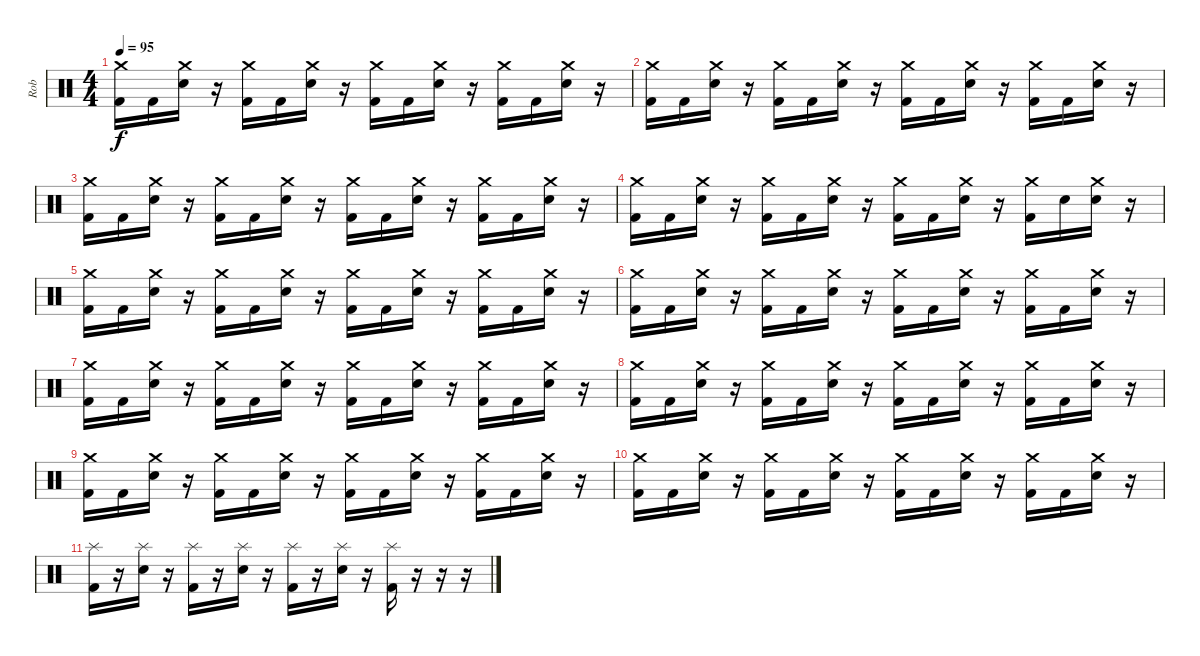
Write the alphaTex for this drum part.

\track ("Rob" "Rob") {instrument percussion}
\staff {score}
\articulation defaults
\ts (4 4)
\tempo 95
\clef neutral
\ks c
("Crash medium (hit)" "Kick (hit) 2").16{dy f} "Kick (hit) 2".16 ("Crash medium (hit)" "Electric Snare (hit)").16 r.16 ("Crash medium (hit)" "Kick (hit) 2").16 "Kick (hit) 2".16 ("Crash medium (hit)" "Electric Snare (hit)").16 r.16 ("Crash medium (hit)" "Kick (hit) 2").16 "Kick (hit) 2".16 ("Crash medium (hit)" "Electric Snare (hit)").16 r.16 ("Crash medium (hit)" "Kick (hit) 2").16 "Kick (hit) 2".16 ("Crash medium (hit)" "Electric Snare (hit)").16 r.16 |
("Crash medium (hit)" "Kick (hit) 2").16 "Kick (hit) 2".16 ("Crash medium (hit)" "Electric Snare (hit)").16 r.16 ("Crash medium (hit)" "Kick (hit) 2").16 "Kick (hit) 2".16 ("Crash medium (hit)" "Electric Snare (hit)").16 r.16 ("Crash medium (hit)" "Kick (hit) 2").16 "Kick (hit) 2".16 ("Crash medium (hit)" "Electric Snare (hit)").16 r.16 ("Crash medium (hit)" "Kick (hit) 2").16 "Kick (hit) 2".16 ("Crash medium (hit)" "Electric Snare (hit)").16 r.16 |
("Crash medium (hit)" "Kick (hit) 2").16 "Kick (hit) 2".16 ("Crash medium (hit)" "Electric Snare (hit)").16 r.16 ("Crash medium (hit)" "Kick (hit) 2").16 "Kick (hit) 2".16 ("Crash medium (hit)" "Electric Snare (hit)").16 r.16 ("Crash medium (hit)" "Kick (hit) 2").16 "Kick (hit) 2".16 ("Crash medium (hit)" "Electric Snare (hit)").16 r.16 ("Crash medium (hit)" "Kick (hit) 2").16 "Kick (hit) 2".16 ("Crash medium (hit)" "Electric Snare (hit)").16 r.16 |
("Crash medium (hit)" "Kick (hit) 2").16 "Kick (hit) 2".16 ("Crash medium (hit)" "Electric Snare (hit)").16 r.16 ("Crash medium (hit)" "Kick (hit) 2").16 "Kick (hit) 2".16 ("Crash medium (hit)" "Electric Snare (hit)").16 r.16 ("Crash medium (hit)" "Kick (hit) 2").16 "Kick (hit) 2".16 ("Crash medium (hit)" "Electric Snare (hit)").16 r.16 ("Crash medium (hit)" "Kick (hit) 2").16 "Electric Snare (hit)".16 ("Crash medium (hit)" "Electric Snare (hit)").16 r.16 |
("Crash medium (hit)" "Kick (hit) 2").16 "Kick (hit) 2".16 ("Crash medium (hit)" "Electric Snare (hit)").16 r.16 ("Crash medium (hit)" "Kick (hit) 2").16 "Kick (hit) 2".16 ("Crash medium (hit)" "Electric Snare (hit)").16 r.16 ("Crash medium (hit)" "Kick (hit) 2").16 "Kick (hit) 2".16 ("Crash medium (hit)" "Electric Snare (hit)").16 r.16 ("Crash medium (hit)" "Kick (hit) 2").16 "Kick (hit) 2".16 ("Crash medium (hit)" "Electric Snare (hit)").16 r.16 |
("Crash medium (hit)" "Kick (hit) 2").16 "Kick (hit) 2".16 ("Crash medium (hit)" "Electric Snare (hit)").16 r.16 ("Crash medium (hit)" "Kick (hit) 2").16 "Kick (hit) 2".16 ("Crash medium (hit)" "Electric Snare (hit)").16 r.16 ("Crash medium (hit)" "Kick (hit) 2").16 "Kick (hit) 2".16 ("Crash medium (hit)" "Electric Snare (hit)").16 r.16 ("Crash medium (hit)" "Kick (hit) 2").16 "Kick (hit) 2".16 ("Crash medium (hit)" "Electric Snare (hit)").16 r.16 |
("Crash medium (hit)" "Kick (hit) 2").16 "Kick (hit) 2".16 ("Crash medium (hit)" "Electric Snare (hit)").16 r.16 ("Crash medium (hit)" "Kick (hit) 2").16 "Kick (hit) 2".16 ("Crash medium (hit)" "Electric Snare (hit)").16 r.16 ("Crash medium (hit)" "Kick (hit) 2").16 "Kick (hit) 2".16 ("Crash medium (hit)" "Electric Snare (hit)").16 r.16 ("Crash medium (hit)" "Kick (hit) 2").16 "Kick (hit) 2".16 ("Crash medium (hit)" "Electric Snare (hit)").16 r.16 |
("Crash medium (hit)" "Kick (hit) 2").16 "Kick (hit) 2".16 ("Crash medium (hit)" "Electric Snare (hit)").16 r.16 ("Crash medium (hit)" "Kick (hit) 2").16 "Kick (hit) 2".16 ("Crash medium (hit)" "Electric Snare (hit)").16 r.16 ("Crash medium (hit)" "Kick (hit) 2").16 "Kick (hit) 2".16 ("Crash medium (hit)" "Electric Snare (hit)").16 r.16 ("Crash medium (hit)" "Kick (hit) 2").16 "Kick (hit) 2".16 ("Crash medium (hit)" "Electric Snare (hit)").16 r.16 |
("Crash medium (hit)" "Kick (hit) 2").16 "Kick (hit) 2".16 ("Crash medium (hit)" "Electric Snare (hit)").16 r.16 ("Crash medium (hit)" "Kick (hit) 2").16 "Kick (hit) 2".16 ("Crash medium (hit)" "Electric Snare (hit)").16 r.16 ("Crash medium (hit)" "Kick (hit) 2").16 "Kick (hit) 2".16 ("Crash medium (hit)" "Electric Snare (hit)").16 r.16 ("Crash medium (hit)" "Kick (hit) 2").16 "Kick (hit) 2".16 ("Crash medium (hit)" "Electric Snare (hit)").16 r.16 |
("Crash medium (hit)" "Kick (hit) 2").16 "Kick (hit) 2".16 ("Crash medium (hit)" "Electric Snare (hit)").16 r.16 ("Crash medium (hit)" "Kick (hit) 2").16 "Kick (hit) 2".16 ("Crash medium (hit)" "Electric Snare (hit)").16 r.16 ("Crash medium (hit)" "Kick (hit) 2").16 "Kick (hit) 2".16 ("Crash medium (hit)" "Electric Snare (hit)").16 r.16 ("Crash medium (hit)" "Kick (hit) 2").16 "Kick (hit) 2".16 ("Crash medium (hit)" "Electric Snare (hit)").16 r.16 |
("Splash (hit)" "Kick (hit) 2").16 r.16 ("Splash (hit)" "Electric Snare (hit)").16 r.16 ("Splash (hit)" "Kick (hit) 2").16 r.16 ("Splash (hit)" "Electric Snare (hit)").16 r.16 ("Splash (hit)" "Kick (hit) 2").16 r.16 ("Splash (hit)" "Electric Snare (hit)").16 r.16 ("Splash (hit)" "Kick (hit) 2").16 r.16 r.16 r.16
